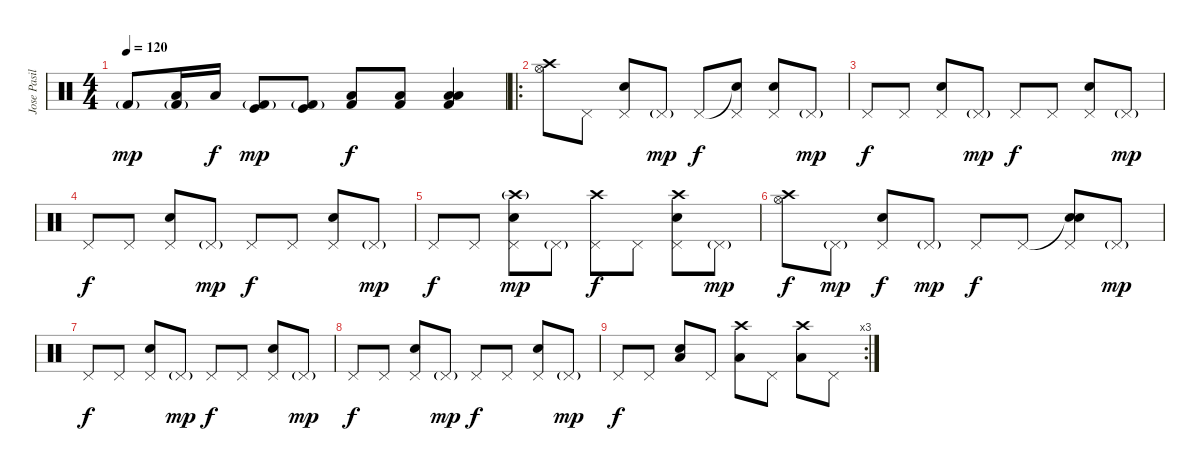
\track ("Jose Pasillas II" "Jose Pasil") {instrument percussion}
\staff {score}
\articulation defaults
\ts (4 4)
\tempo 120
\clef neutral
\ks c "Kick (hit) 2"{g}.8{dy mp}
("Kick (hit) 2"{g} "Low Floor Tom (hit)").16 "Low Floor Tom (hit)".16{dy f} ("Kick (hit) 2"{g} "Kick (hit)").8{dy mp} ("Kick (hit) 2"{g} "Kick (hit)").8 ("Kick (hit) 2" "Low Floor Tom (hit)").8{dy f} ("Kick (hit) 2" "Low Floor Tom (hit)").8 ("Kick (hit) 2" "Low Floor Tom (hit)" "Low Tom (hit)").4 |
\ro
("Crash high (hit)" "Hi-Hat (open)").8{volume 16} "Pedal Hi-Hat (hit)".8 ("Pedal Hi-Hat (hit)" "Electric Snare (hit)").8 "Pedal Hi-Hat (hit)"{g}.8{dy mp} "Pedal Hi-Hat (hit)".8{dy f} ("Snare (hit)"{t} "Pedal Hi-Hat (hit)").8 ("Pedal Hi-Hat (hit)" "Electric Snare (hit)").8 "Pedal Hi-Hat (hit)"{g}.8{dy mp} |
"Pedal Hi-Hat (hit)".8{dy f} "Pedal Hi-Hat (hit)".8 ("Pedal Hi-Hat (hit)" "Electric Snare (hit)").8 "Pedal Hi-Hat (hit)"{g}.8{dy mp} "Pedal Hi-Hat (hit)".8{dy f} "Pedal Hi-Hat (hit)".8 ("Pedal Hi-Hat (hit)" "Electric Snare (hit)").8 "Pedal Hi-Hat (hit)"{g}.8{dy mp} |
"Pedal Hi-Hat (hit)".8{dy f} "Pedal Hi-Hat (hit)".8 ("Pedal Hi-Hat (hit)" "Electric Snare (hit)").8 "Pedal Hi-Hat (hit)"{g}.8{dy mp} "Pedal Hi-Hat (hit)".8{dy f} "Pedal Hi-Hat (hit)".8 ("Pedal Hi-Hat (hit)" "Electric Snare (hit)").8 "Pedal Hi-Hat (hit)"{g}.8{dy mp} |
"Pedal Hi-Hat (hit)".8{dy f} "Pedal Hi-Hat (hit)".8 ("Crash high (hit)"{g} "Pedal Hi-Hat (hit)" "Electric Snare (hit)").8{dy mp} "Pedal Hi-Hat (hit)"{g}.8 ("Crash high (hit)" "Pedal Hi-Hat (hit)").8{dy f} "Pedal Hi-Hat (hit)".8 ("Crash high (hit)" "Pedal Hi-Hat (hit)" "Electric Snare (hit)").8 "Pedal Hi-Hat (hit)"{g}.8{dy mp} |
("Crash high (hit)" "Hi-Hat (open)").8{dy f} "Pedal Hi-Hat (hit)"{g}.8{dy mp} ("Pedal Hi-Hat (hit)" "Electric Snare (hit)").8{dy f} "Pedal Hi-Hat (hit)"{g}.8{dy mp} "Pedal Hi-Hat (hit)".8{dy f} "Pedal Hi-Hat (hit)".8 ("Snare (hit)"{t} "Pedal Hi-Hat (hit)" "Electric Snare (hit)").8 "Pedal Hi-Hat (hit)"{g}.8{dy mp} |
"Pedal Hi-Hat (hit)".8{dy f} "Pedal Hi-Hat (hit)".8 ("Pedal Hi-Hat (hit)" "Electric Snare (hit)").8 "Pedal Hi-Hat (hit)"{g}.8{dy mp} "Pedal Hi-Hat (hit)".8{dy f} "Pedal Hi-Hat (hit)".8 ("Pedal Hi-Hat (hit)" "Electric Snare (hit)").8 "Pedal Hi-Hat (hit)"{g}.8{dy mp} |
"Pedal Hi-Hat (hit)".8{dy f} "Pedal Hi-Hat (hit)".8 ("Pedal Hi-Hat (hit)" "Electric Snare (hit)").8 "Pedal Hi-Hat (hit)"{g}.8{dy mp} "Pedal Hi-Hat (hit)".8{dy f} "Pedal Hi-Hat (hit)".8 ("Pedal Hi-Hat (hit)" "Electric Snare (hit)").8 "Pedal Hi-Hat (hit)"{g}.8{dy mp} |
\rc 3 "Pedal Hi-Hat (hit)".8{dy f} "Pedal Hi-Hat (hit)".8
("Electric Snare (hit)" "Low Tom (hit)").8 "Pedal Hi-Hat (hit)".8 ("Crash high (hit)" "Low Tom (hit)").8 "Pedal Hi-Hat (hit)".8 ("Crash high (hit)" "Low Tom (hit)").8 "Pedal Hi-Hat (hit)".8
